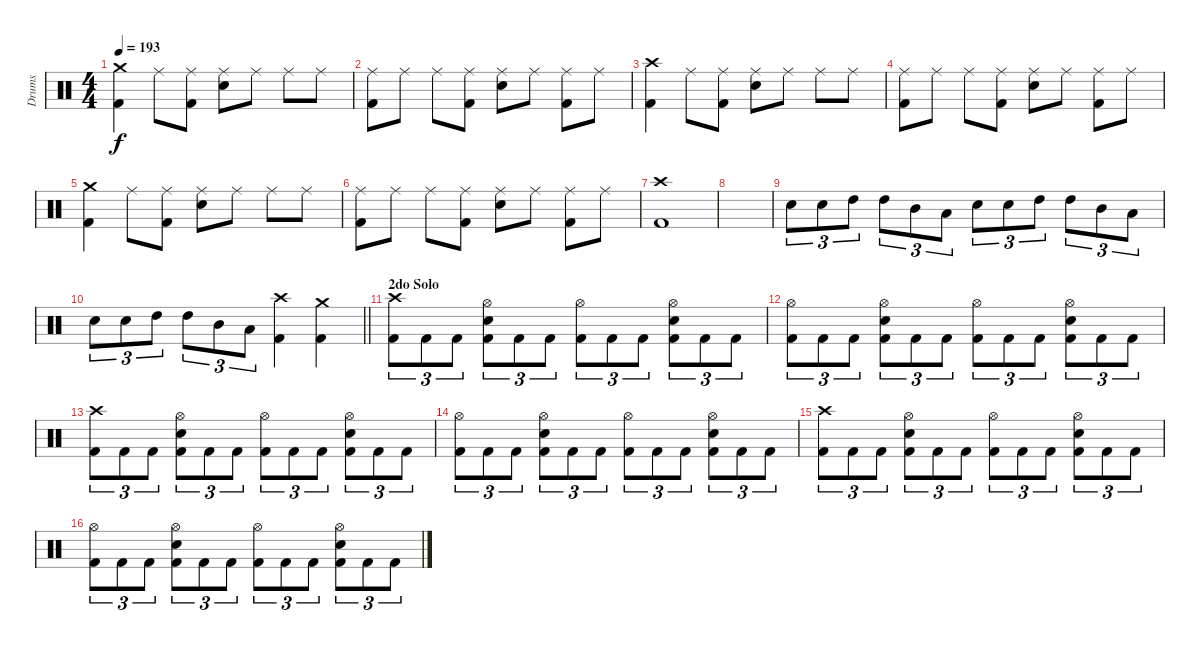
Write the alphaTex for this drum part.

\track ("Drums" "Drums") {instrument percussion}
\staff {score}
\articulation defaults
\ts (4 4)
\tempo 193
\clef neutral
\ks c
("Crash medium (hit)" "Kick (hit) 2").4{dy f} "Ride (middle)".8 ("Ride (middle)" "Kick (hit) 2").8 ("Ride (middle)" "Electric Snare (hit)").8 "Ride (middle)".8 "Ride (middle)".8 "Ride (middle)".8 |
("Ride (middle)" "Kick (hit) 2").8 "Ride (middle)".8 "Ride (middle)".8 ("Ride (middle)" "Kick (hit) 2").8 ("Ride (middle)" "Electric Snare (hit)").8 "Ride (middle)".8 ("Ride (middle)" "Kick (hit) 2").8 "Ride (middle)".8 |
("Crash high (hit)" "Kick (hit) 2").4 "Ride (middle)".8 ("Ride (middle)" "Kick (hit) 2").8 ("Ride (middle)" "Electric Snare (hit)").8 "Ride (middle)".8 "Ride (middle)".8 "Ride (middle)".8 |
("Ride (middle)" "Kick (hit) 2").8 "Ride (middle)".8 "Ride (middle)".8 ("Ride (middle)" "Kick (hit) 2").8 ("Ride (middle)" "Electric Snare (hit)").8 "Ride (middle)".8 ("Ride (middle)" "Kick (hit) 2").8 "Ride (middle)".8 |
("Crash medium (hit)" "Kick (hit) 2").4 "Ride (middle)".8 ("Ride (middle)" "Kick (hit) 2").8 ("Ride (middle)" "Electric Snare (hit)").8 "Ride (middle)".8 "Ride (middle)".8 "Ride (middle)".8 |
("Ride (middle)" "Kick (hit) 2").8 "Ride (middle)".8 "Ride (middle)".8 ("Ride (middle)" "Kick (hit) 2").8 ("Ride (middle)" "Electric Snare (hit)").8 "Ride (middle)".8 ("Ride (middle)" "Kick (hit) 2").8 "Ride (middle)".8 |
("Crash high (hit)" "Kick (hit) 2").1 |
|
"Electric Snare (hit)".8{tu (3 2)} "Electric Snare (hit)".8{tu (3 2)} "High Tom (hit)".8{tu (3 2)} "High Tom (hit)".8{tu (3 2)} "Mid Tom (hit)".8{tu (3 2)} "Low Tom (hit)".8{tu (3 2)} "Electric Snare (hit)".8{tu (3 2)} "Electric Snare (hit)".8{tu (3 2)} "High Tom (hit)".8{tu (3 2)} "High Tom (hit)".8{tu (3 2)} "Mid Tom (hit)".8{tu (3 2)} "Low Tom (hit)".8{tu (3 2)} |
\barLineRight lightlight "Electric Snare (hit)".8{tu (3 2)} "Electric Snare (hit)".8{tu (3 2)} "High Tom (hit)".8{tu (3 2)} "High Tom (hit)".8{tu (3 2)} "Mid Tom (hit)".8{tu (3 2)} "Low Tom (hit)".8{tu (3 2)}
("Crash high (hit)" "Kick (hit) 2").4 ("Crash medium (hit)" "Kick (hit) 2").4 |
\section ("" "2do Solo")
("Crash high (hit)" "Kick (hit) 2").8{tu (3 2)} "Kick (hit) 2".8{tu (3 2)} "Kick (hit) 2".8{tu (3 2)} ("Hi-Hat (open)" "Electric Snare (hit)" "Kick (hit) 2").8{tu (3 2)} "Kick (hit) 2".8{tu (3 2)} "Kick (hit) 2".8{tu (3 2)} ("Hi-Hat (open)" "Kick (hit) 2").8{tu (3 2)} "Kick (hit) 2".8{tu (3 2)} "Kick (hit) 2".8{tu (3 2)} ("Hi-Hat (open)" "Electric Snare (hit)" "Kick (hit) 2").8{tu (3 2)} "Kick (hit) 2".8{tu (3 2)} "Kick (hit) 2".8{tu (3 2)} |
("Hi-Hat (open)" "Kick (hit) 2").8{tu (3 2)} "Kick (hit) 2".8{tu (3 2)} "Kick (hit) 2".8{tu (3 2)} ("Hi-Hat (open)" "Electric Snare (hit)" "Kick (hit) 2").8{tu (3 2)} "Kick (hit) 2".8{tu (3 2)} "Kick (hit) 2".8{tu (3 2)} ("Hi-Hat (open)" "Kick (hit) 2").8{tu (3 2)} "Kick (hit) 2".8{tu (3 2)} "Kick (hit) 2".8{tu (3 2)} ("Hi-Hat (open)" "Electric Snare (hit)" "Kick (hit) 2").8{tu (3 2)} "Kick (hit) 2".8{tu (3 2)} "Kick (hit) 2".8{tu (3 2)} |
("Crash high (hit)" "Kick (hit) 2").8{tu (3 2)} "Kick (hit) 2".8{tu (3 2)} "Kick (hit) 2".8{tu (3 2)} ("Hi-Hat (open)" "Electric Snare (hit)" "Kick (hit) 2").8{tu (3 2)} "Kick (hit) 2".8{tu (3 2)} "Kick (hit) 2".8{tu (3 2)} ("Hi-Hat (open)" "Kick (hit) 2").8{tu (3 2)} "Kick (hit) 2".8{tu (3 2)} "Kick (hit) 2".8{tu (3 2)} ("Hi-Hat (open)" "Electric Snare (hit)" "Kick (hit) 2").8{tu (3 2)} "Kick (hit) 2".8{tu (3 2)} "Kick (hit) 2".8{tu (3 2)} |
("Hi-Hat (open)" "Kick (hit) 2").8{tu (3 2)} "Kick (hit) 2".8{tu (3 2)} "Kick (hit) 2".8{tu (3 2)} ("Hi-Hat (open)" "Electric Snare (hit)" "Kick (hit) 2").8{tu (3 2)} "Kick (hit) 2".8{tu (3 2)} "Kick (hit) 2".8{tu (3 2)} ("Hi-Hat (open)" "Kick (hit) 2").8{tu (3 2)} "Kick (hit) 2".8{tu (3 2)} "Kick (hit) 2".8{tu (3 2)} ("Hi-Hat (open)" "Electric Snare (hit)" "Kick (hit) 2").8{tu (3 2)} "Kick (hit) 2".8{tu (3 2)} "Kick (hit) 2".8{tu (3 2)} |
("Crash high (hit)" "Kick (hit) 2").8{tu (3 2)} "Kick (hit) 2".8{tu (3 2)} "Kick (hit) 2".8{tu (3 2)} ("Hi-Hat (open)" "Electric Snare (hit)" "Kick (hit) 2").8{tu (3 2)} "Kick (hit) 2".8{tu (3 2)} "Kick (hit) 2".8{tu (3 2)} ("Hi-Hat (open)" "Kick (hit) 2").8{tu (3 2)} "Kick (hit) 2".8{tu (3 2)} "Kick (hit) 2".8{tu (3 2)} ("Hi-Hat (open)" "Electric Snare (hit)" "Kick (hit) 2").8{tu (3 2)} "Kick (hit) 2".8{tu (3 2)} "Kick (hit) 2".8{tu (3 2)} |
("Hi-Hat (open)" "Kick (hit) 2").8{tu (3 2)} "Kick (hit) 2".8{tu (3 2)} "Kick (hit) 2".8{tu (3 2)} ("Hi-Hat (open)" "Electric Snare (hit)" "Kick (hit) 2").8{tu (3 2)} "Kick (hit) 2".8{tu (3 2)} "Kick (hit) 2".8{tu (3 2)} ("Hi-Hat (open)" "Kick (hit) 2").8{tu (3 2)} "Kick (hit) 2".8{tu (3 2)} "Kick (hit) 2".8{tu (3 2)} ("Hi-Hat (open)" "Electric Snare (hit)" "Kick (hit) 2").8{tu (3 2)} "Kick (hit) 2".8{tu (3 2)} "Kick (hit) 2".8{tu (3 2)}
